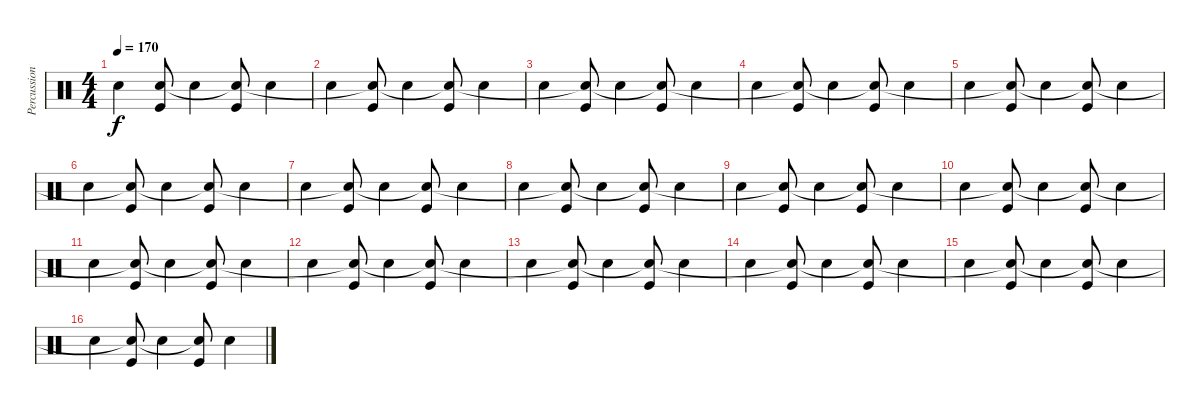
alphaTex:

\track ("Percussions" "Percussion") {instrument percussion}
\staff {score}
\articulation defaults
\ts (4 4)
\tempo 170
\clef neutral
\ks c "Snare (hit) 2".4{dy f}
("Kick (hit)" "Snare (hit) 2").8 "Snare (hit) 2".4 ("Kick (hit)" "Snare (hit)"{t}).8 "Snare (hit) 2".4 |
"Snare (hit) 2".4 ("Kick (hit)" "Snare (hit)"{t}).8 "Snare (hit) 2".4 ("Kick (hit)" "Snare (hit)"{t}).8 "Snare (hit) 2".4 |
"Snare (hit) 2".4 ("Kick (hit)" "Snare (hit)"{t}).8 "Snare (hit) 2".4 ("Kick (hit)" "Snare (hit)"{t}).8 "Snare (hit) 2".4 |
"Snare (hit) 2".4 ("Kick (hit)" "Snare (hit)"{t}).8 "Snare (hit) 2".4 ("Kick (hit)" "Snare (hit)"{t}).8 "Snare (hit) 2".4 |
"Snare (hit) 2".4 ("Kick (hit)" "Snare (hit) 2"{t}).8 "Snare (hit) 2".4 ("Kick (hit)" "Snare (hit)"{t}).8 "Snare (hit) 2".4 |
"Snare (hit) 2".4 ("Kick (hit)" "Snare (hit)"{t}).8 "Snare (hit) 2".4 ("Kick (hit)" "Snare (hit)"{t}).8 "Snare (hit) 2".4 |
"Snare (hit) 2".4 ("Kick (hit)" "Snare (hit)"{t}).8 "Snare (hit) 2".4 ("Kick (hit)" "Snare (hit)"{t}).8 "Snare (hit) 2".4 |
"Snare (hit) 2".4 ("Kick (hit)" "Snare (hit)"{t}).8 "Snare (hit) 2".4 ("Kick (hit)" "Snare (hit)"{t}).8 "Snare (hit) 2".4 |
"Snare (hit) 2".4 ("Kick (hit)" "Snare (hit) 2"{t}).8 "Snare (hit) 2".4 ("Kick (hit)" "Snare (hit)"{t}).8 "Snare (hit) 2".4 |
"Snare (hit) 2".4 ("Kick (hit)" "Snare (hit)"{t}).8 "Snare (hit) 2".4 ("Kick (hit)" "Snare (hit)"{t}).8 "Snare (hit) 2".4 |
"Snare (hit) 2".4 ("Kick (hit)" "Snare (hit)"{t}).8 "Snare (hit) 2".4 ("Kick (hit)" "Snare (hit)"{t}).8 "Snare (hit) 2".4 |
"Snare (hit) 2".4 ("Kick (hit)" "Snare (hit)"{t}).8 "Snare (hit) 2".4 ("Kick (hit)" "Snare (hit)"{t}).8 "Snare (hit) 2".4 |
"Snare (hit) 2".4 ("Kick (hit)" "Snare (hit) 2"{t}).8 "Snare (hit) 2".4 ("Kick (hit)" "Snare (hit)"{t}).8 "Snare (hit) 2".4 |
"Snare (hit) 2".4 ("Kick (hit)" "Snare (hit)"{t}).8 "Snare (hit) 2".4 ("Kick (hit)" "Snare (hit)"{t}).8 "Snare (hit) 2".4 |
"Snare (hit) 2".4 ("Kick (hit)" "Snare (hit)"{t}).8 "Snare (hit) 2".4 ("Kick (hit)" "Snare (hit)"{t}).8 "Snare (hit) 2".4 |
"Snare (hit) 2".4 ("Kick (hit)" "Snare (hit)"{t}).8 "Snare (hit) 2".4 ("Kick (hit)" "Snare (hit)"{t}).8 "Snare (hit) 2".4
